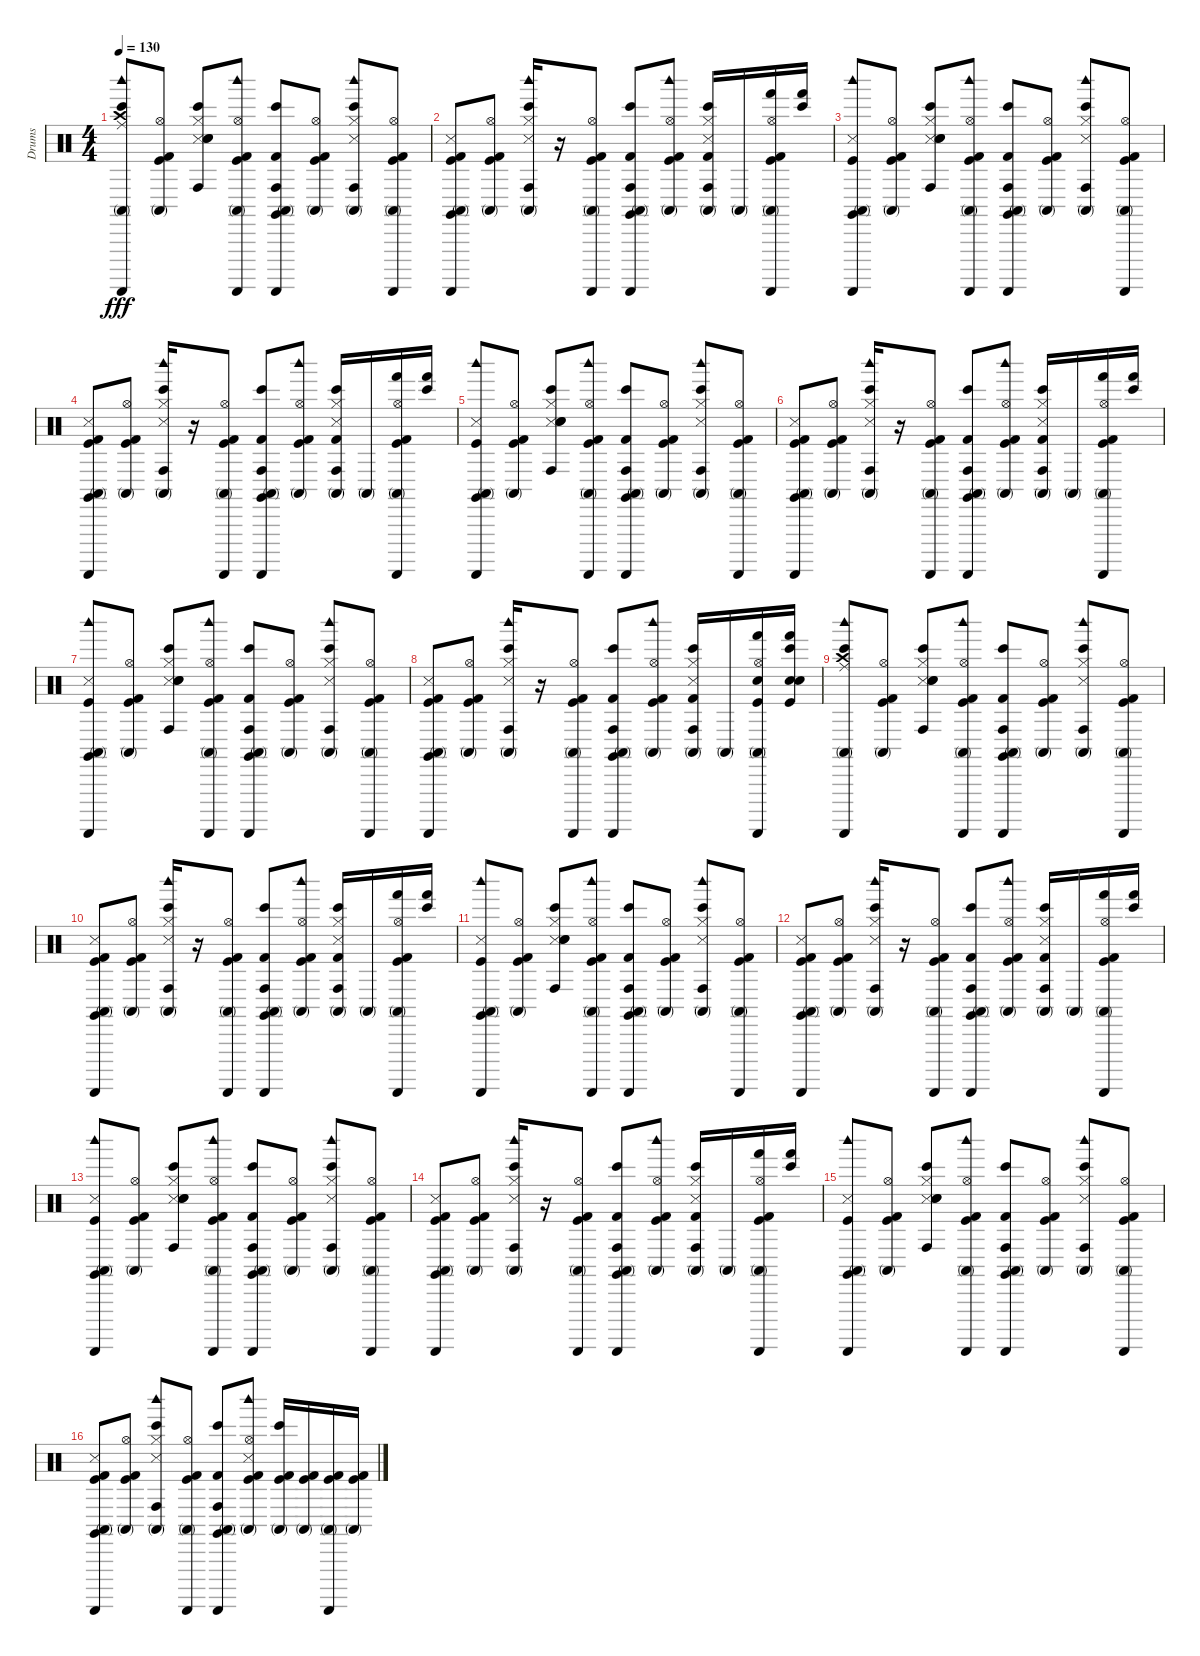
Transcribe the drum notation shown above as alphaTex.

\track ("Drums" "Drums") {instrument percussion}
\staff {score}
\articulation defaults
\ts (4 4)
\tempo 130
\clef neutral
\ks c
("Guiro (scrap-return)" "Woodblock high (hit)" "Bongo High (hit)" "Conga high (mute)" "Crash high (hit)" "Ride (middle)").8{dy fff} ("Conga high (mute)" "Hi-Hat (open)" "Kick (hit)" "Kick (hit) 2").8 ("Bongo High (hit)" "Conga high (hit)" "Snare (side stick) 3" "Hi-Hat (closed)" "Electric Snare (hit)" "Snare (hit) 2").8 ("Kick (hit) 2" "Kick (hit)" "Guiro (scrap-return)" "Woodblock high (hit)" "Conga high (mute)" "Hi-Hat (open)").8 ("Kick (hit) 2" "Guiro (scrap-return)" "Claves (hit)" "Bongo High (hit)" "Conga high (mute)" "Conga high (hit)").8 ("Conga high (mute)" "Hi-Hat (open)" "Kick (hit) 2" "Kick (hit)").8 ("Woodblock high (hit)" "Bongo High (hit)" "Conga high (mute)" "Conga high (hit)" "Snare (side stick) 3" "Hi-Hat (closed)").8 ("Kick (hit) 2" "Kick (hit)" "Guiro (scrap-return)" "Conga high (mute)" "Hi-Hat (open)").8 |
("Guiro (scrap-return)" "Claves (hit)" "Conga high (mute)" "Snare (side stick) 3" "Kick (hit)" "Kick (hit) 2").8 ("Conga high (mute)" "Hi-Hat (open)" "Kick (hit)" "Kick (hit) 2").8 ("Woodblock high (hit)" "Conga high (mute)" "Conga high (hit)" "Bongo High (hit)" "Snare (side stick) 3" "Hi-Hat (closed)").16 r.16 ("Guiro (scrap-return)" "Conga high (mute)" "Kick (hit) 2" "Kick (hit)" "Hi-Hat (open)").8 ("Guiro (scrap-return)" "Claves (hit)" "Conga high (mute)" "Conga high (hit)" "Kick (hit) 2" "Bongo High (hit)").8 ("Woodblock high (hit)" "Conga high (mute)" "Hi-Hat (open)" "Kick (hit) 2" "Kick (hit)").8 ("Conga high (mute)" "Conga high (hit)" "Bongo High (hit)" "Snare (side stick) 3" "Hi-Hat (closed)" "Kick (hit) 2").16 "Conga high (mute)".16 ("Guiro (scrap-return)" "Hand (hit)" "Conga high (mute)" "Kick (hit) 2" "Kick (hit)" "Hi-Hat (open)").16 ("Bongo High (hit)" "Hand (hit)").16 |
("Guiro (scrap-return)" "Woodblock high (hit)" "Claves (hit)" "Conga high (mute)" "Snare (side stick) 3" "Kick (hit)").8 ("Conga high (mute)" "Hi-Hat (open)" "Kick (hit)" "Kick (hit) 2").8 ("Conga high (hit)" "Bongo High (hit)" "Snare (side stick) 3" "Hi-Hat (closed)" "Electric Snare (hit)" "Snare (hit) 2").8 ("Guiro (scrap-return)" "Woodblock high (hit)" "Conga high (mute)" "Kick (hit) 2" "Kick (hit)" "Hi-Hat (open)").8 ("Guiro (scrap-return)" "Claves (hit)" "Conga high (mute)" "Conga high (hit)" "Kick (hit) 2" "Bongo High (hit)").8 ("Conga high (mute)" "Hi-Hat (open)" "Kick (hit) 2" "Kick (hit)").8 ("Woodblock high (hit)" "Conga high (mute)" "Conga high (hit)" "Bongo High (hit)" "Snare (side stick) 3" "Hi-Hat (closed)").8 ("Guiro (scrap-return)" "Conga high (mute)" "Kick (hit) 2" "Kick (hit)" "Hi-Hat (open)").8 |
("Guiro (scrap-return)" "Claves (hit)" "Conga high (mute)" "Snare (side stick) 3" "Kick (hit)" "Kick (hit) 2").8 ("Conga high (mute)" "Hi-Hat (open)" "Kick (hit)" "Kick (hit) 2").8 ("Woodblock high (hit)" "Conga high (mute)" "Conga high (hit)" "Bongo High (hit)" "Snare (side stick) 3" "Hi-Hat (closed)").16 r.16 ("Guiro (scrap-return)" "Conga high (mute)" "Kick (hit) 2" "Kick (hit)" "Hi-Hat (open)").8 ("Guiro (scrap-return)" "Claves (hit)" "Conga high (mute)" "Conga high (hit)" "Kick (hit) 2" "Bongo High (hit)").8 ("Woodblock high (hit)" "Conga high (mute)" "Hi-Hat (open)" "Kick (hit) 2" "Kick (hit)").8 ("Conga high (mute)" "Conga high (hit)" "Bongo High (hit)" "Snare (side stick) 3" "Hi-Hat (closed)" "Kick (hit) 2").16 "Conga high (mute)".16 ("Guiro (scrap-return)" "Hand (hit)" "Conga high (mute)" "Kick (hit) 2" "Kick (hit)" "Hi-Hat (open)").16 ("Bongo High (hit)" "Hand (hit)").16 |
("Conga high (mute)" "Claves (hit)" "Woodblock high (hit)" "Guiro (scrap-return)" "Snare (side stick) 3" "Kick (hit)").8 ("Conga high (mute)" "Hi-Hat (open)" "Kick (hit)" "Kick (hit) 2").8 ("Conga high (hit)" "Bongo High (hit)" "Snare (side stick) 3" "Hi-Hat (closed)" "Electric Snare (hit)" "Snare (hit) 2").8 ("Guiro (scrap-return)" "Woodblock high (hit)" "Conga high (mute)" "Kick (hit) 2" "Kick (hit)" "Hi-Hat (open)").8 ("Guiro (scrap-return)" "Claves (hit)" "Conga high (mute)" "Conga high (hit)" "Kick (hit) 2" "Bongo High (hit)").8 ("Conga high (mute)" "Hi-Hat (open)" "Kick (hit) 2" "Kick (hit)").8 ("Woodblock high (hit)" "Conga high (mute)" "Conga high (hit)" "Bongo High (hit)" "Snare (side stick) 3" "Hi-Hat (closed)").8 ("Guiro (scrap-return)" "Conga high (mute)" "Kick (hit) 2" "Kick (hit)" "Hi-Hat (open)").8 |
("Guiro (scrap-return)" "Claves (hit)" "Conga high (mute)" "Snare (side stick) 3" "Kick (hit)" "Kick (hit) 2").8 ("Conga high (mute)" "Hi-Hat (open)" "Kick (hit)" "Kick (hit) 2").8 ("Woodblock high (hit)" "Conga high (mute)" "Conga high (hit)" "Bongo High (hit)" "Snare (side stick) 3" "Hi-Hat (closed)").16 r.16 ("Guiro (scrap-return)" "Conga high (mute)" "Kick (hit) 2" "Kick (hit)" "Hi-Hat (open)").8 ("Guiro (scrap-return)" "Claves (hit)" "Conga high (mute)" "Conga high (hit)" "Kick (hit) 2" "Bongo High (hit)").8 ("Woodblock high (hit)" "Conga high (mute)" "Hi-Hat (open)" "Kick (hit) 2" "Kick (hit)").8 ("Conga high (mute)" "Conga high (hit)" "Bongo High (hit)" "Snare (side stick) 3" "Hi-Hat (closed)" "Kick (hit) 2").16 "Conga high (mute)".16 ("Guiro (scrap-return)" "Hand (hit)" "Conga high (mute)" "Kick (hit) 2" "Kick (hit)" "Hi-Hat (open)").16 ("Bongo High (hit)" "Hand (hit)").16 |
("Guiro (scrap-return)" "Woodblock high (hit)" "Claves (hit)" "Conga high (mute)" "Snare (side stick) 3" "Kick (hit)").8 ("Conga high (mute)" "Hi-Hat (open)" "Kick (hit)" "Kick (hit) 2").8 ("Conga high (hit)" "Bongo High (hit)" "Snare (side stick) 3" "Hi-Hat (closed)" "Electric Snare (hit)" "Snare (hit) 2").8 ("Guiro (scrap-return)" "Woodblock high (hit)" "Conga high (mute)" "Kick (hit) 2" "Kick (hit)" "Hi-Hat (open)").8 ("Guiro (scrap-return)" "Claves (hit)" "Conga high (mute)" "Conga high (hit)" "Kick (hit) 2" "Bongo High (hit)").8 ("Conga high (mute)" "Hi-Hat (open)" "Kick (hit) 2" "Kick (hit)").8 ("Woodblock high (hit)" "Conga high (mute)" "Conga high (hit)" "Bongo High (hit)" "Snare (side stick) 3" "Hi-Hat (closed)").8 ("Guiro (scrap-return)" "Conga high (mute)" "Kick (hit) 2" "Kick (hit)" "Hi-Hat (open)").8 |
("Guiro (scrap-return)" "Claves (hit)" "Conga high (mute)" "Snare (side stick) 3" "Kick (hit)" "Kick (hit) 2").8 ("Conga high (mute)" "Hi-Hat (open)" "Kick (hit)" "Kick (hit) 2").8 ("Woodblock high (hit)" "Conga high (mute)" "Conga high (hit)" "Bongo High (hit)" "Snare (side stick) 3" "Hi-Hat (closed)").16 r.16 ("Guiro (scrap-return)" "Conga high (mute)" "Kick (hit) 2" "Kick (hit)" "Hi-Hat (open)").8 ("Guiro (scrap-return)" "Claves (hit)" "Conga high (mute)" "Conga high (hit)" "Kick (hit) 2" "Bongo High (hit)").8 ("Woodblock high (hit)" "Conga high (mute)" "Hi-Hat (open)" "Kick (hit) 2" "Kick (hit)").8 ("Conga high (mute)" "Conga high (hit)" "Bongo High (hit)" "Snare (side stick) 3" "Hi-Hat (closed)" "Kick (hit) 2").16 "Conga high (mute)".16 ("Guiro (scrap-return)" "Hand (hit)" "Conga high (mute)" "Kick (hit)" "Hi-Hat (open)" "Electric Snare (hit)").16 ("Bongo High (hit)" "Hand (hit)" "Electric Snare (hit)" "Snare (hit) 2" "Kick (hit)").16 |
("Guiro (scrap-return)" "Woodblock high (hit)" "Bongo High (hit)" "Conga high (mute)" "Crash high (hit)" "Ride (middle)").8 ("Conga high (mute)" "Hi-Hat (open)" "Kick (hit)" "Kick (hit) 2").8 ("Bongo High (hit)" "Conga high (hit)" "Snare (side stick) 3" "Hi-Hat (closed)" "Electric Snare (hit)" "Snare (hit) 2").8 ("Kick (hit) 2" "Kick (hit)" "Guiro (scrap-return)" "Woodblock high (hit)" "Conga high (mute)" "Hi-Hat (open)").8 ("Kick (hit) 2" "Guiro (scrap-return)" "Claves (hit)" "Bongo High (hit)" "Conga high (mute)" "Conga high (hit)").8 ("Conga high (mute)" "Hi-Hat (open)" "Kick (hit) 2" "Kick (hit)").8 ("Woodblock high (hit)" "Bongo High (hit)" "Conga high (mute)" "Conga high (hit)" "Snare (side stick) 3" "Hi-Hat (closed)").8 ("Kick (hit) 2" "Kick (hit)" "Guiro (scrap-return)" "Conga high (mute)" "Hi-Hat (open)").8 |
("Guiro (scrap-return)" "Claves (hit)" "Conga high (mute)" "Snare (side stick) 3" "Kick (hit)" "Kick (hit) 2").8 ("Conga high (mute)" "Hi-Hat (open)" "Kick (hit)" "Kick (hit) 2").8 ("Woodblock high (hit)" "Conga high (mute)" "Conga high (hit)" "Bongo High (hit)" "Snare (side stick) 3" "Hi-Hat (closed)").16 r.16 ("Guiro (scrap-return)" "Conga high (mute)" "Kick (hit) 2" "Kick (hit)" "Hi-Hat (open)").8 ("Guiro (scrap-return)" "Claves (hit)" "Conga high (mute)" "Conga high (hit)" "Kick (hit) 2" "Bongo High (hit)").8 ("Woodblock high (hit)" "Conga high (mute)" "Hi-Hat (open)" "Kick (hit) 2" "Kick (hit)").8 ("Conga high (mute)" "Conga high (hit)" "Bongo High (hit)" "Snare (side stick) 3" "Hi-Hat (closed)" "Kick (hit) 2").16 "Conga high (mute)".16 ("Guiro (scrap-return)" "Hand (hit)" "Conga high (mute)" "Kick (hit) 2" "Kick (hit)" "Hi-Hat (open)").16 ("Bongo High (hit)" "Hand (hit)").16 |
("Guiro (scrap-return)" "Woodblock high (hit)" "Claves (hit)" "Conga high (mute)" "Snare (side stick) 3" "Kick (hit)").8 ("Conga high (mute)" "Hi-Hat (open)" "Kick (hit)" "Kick (hit) 2").8 ("Conga high (hit)" "Bongo High (hit)" "Snare (side stick) 3" "Hi-Hat (closed)" "Electric Snare (hit)" "Snare (hit) 2").8 ("Guiro (scrap-return)" "Woodblock high (hit)" "Conga high (mute)" "Kick (hit) 2" "Kick (hit)" "Hi-Hat (open)").8 ("Guiro (scrap-return)" "Claves (hit)" "Conga high (mute)" "Conga high (hit)" "Kick (hit) 2" "Bongo High (hit)").8 ("Conga high (mute)" "Hi-Hat (open)" "Kick (hit) 2" "Kick (hit)").8 ("Woodblock high (hit)" "Conga high (mute)" "Conga high (hit)" "Bongo High (hit)" "Snare (side stick) 3" "Hi-Hat (closed)").8 ("Guiro (scrap-return)" "Conga high (mute)" "Kick (hit) 2" "Kick (hit)" "Hi-Hat (open)").8 |
("Guiro (scrap-return)" "Claves (hit)" "Conga high (mute)" "Snare (side stick) 3" "Kick (hit)" "Kick (hit) 2").8 ("Conga high (mute)" "Hi-Hat (open)" "Kick (hit)" "Kick (hit) 2").8 ("Woodblock high (hit)" "Conga high (mute)" "Conga high (hit)" "Bongo High (hit)" "Snare (side stick) 3" "Hi-Hat (closed)").16 r.16 ("Guiro (scrap-return)" "Conga high (mute)" "Kick (hit) 2" "Kick (hit)" "Hi-Hat (open)").8 ("Guiro (scrap-return)" "Claves (hit)" "Conga high (mute)" "Conga high (hit)" "Kick (hit) 2" "Bongo High (hit)").8 ("Woodblock high (hit)" "Conga high (mute)" "Hi-Hat (open)" "Kick (hit) 2" "Kick (hit)").8 ("Conga high (mute)" "Conga high (hit)" "Bongo High (hit)" "Snare (side stick) 3" "Hi-Hat (closed)" "Kick (hit) 2").16 "Conga high (mute)".16 ("Guiro (scrap-return)" "Hand (hit)" "Conga high (mute)" "Kick (hit) 2" "Kick (hit)" "Hi-Hat (open)").16 ("Bongo High (hit)" "Hand (hit)").16 |
("Conga high (mute)" "Claves (hit)" "Woodblock high (hit)" "Guiro (scrap-return)" "Snare (side stick) 3" "Kick (hit)").8 ("Conga high (mute)" "Hi-Hat (open)" "Kick (hit)" "Kick (hit) 2").8 ("Conga high (hit)" "Bongo High (hit)" "Snare (side stick) 3" "Hi-Hat (closed)" "Electric Snare (hit)" "Snare (hit) 2").8 ("Guiro (scrap-return)" "Woodblock high (hit)" "Conga high (mute)" "Kick (hit) 2" "Kick (hit)" "Hi-Hat (open)").8 ("Guiro (scrap-return)" "Claves (hit)" "Conga high (mute)" "Conga high (hit)" "Kick (hit) 2" "Bongo High (hit)").8 ("Conga high (mute)" "Hi-Hat (open)" "Kick (hit) 2" "Kick (hit)").8 ("Woodblock high (hit)" "Conga high (mute)" "Conga high (hit)" "Bongo High (hit)" "Snare (side stick) 3" "Hi-Hat (closed)").8 ("Guiro (scrap-return)" "Conga high (mute)" "Kick (hit) 2" "Kick (hit)" "Hi-Hat (open)").8 |
("Guiro (scrap-return)" "Claves (hit)" "Conga high (mute)" "Snare (side stick) 3" "Kick (hit)" "Kick (hit) 2").8 ("Conga high (mute)" "Hi-Hat (open)" "Kick (hit)" "Kick (hit) 2").8 ("Woodblock high (hit)" "Conga high (mute)" "Conga high (hit)" "Bongo High (hit)" "Snare (side stick) 3" "Hi-Hat (closed)").16 r.16 ("Guiro (scrap-return)" "Conga high (mute)" "Kick (hit) 2" "Kick (hit)" "Hi-Hat (open)").8 ("Guiro (scrap-return)" "Claves (hit)" "Conga high (mute)" "Conga high (hit)" "Kick (hit) 2" "Bongo High (hit)").8 ("Woodblock high (hit)" "Conga high (mute)" "Hi-Hat (open)" "Kick (hit) 2" "Kick (hit)").8 ("Conga high (mute)" "Conga high (hit)" "Bongo High (hit)" "Snare (side stick) 3" "Hi-Hat (closed)" "Kick (hit) 2").16 "Conga high (mute)".16 ("Guiro (scrap-return)" "Hand (hit)" "Conga high (mute)" "Kick (hit) 2" "Kick (hit)" "Hi-Hat (open)").16 ("Bongo High (hit)" "Hand (hit)").16 |
("Guiro (scrap-return)" "Woodblock high (hit)" "Claves (hit)" "Conga high (mute)" "Snare (side stick) 3" "Kick (hit)").8 ("Conga high (mute)" "Hi-Hat (open)" "Kick (hit)" "Kick (hit) 2").8 ("Conga high (hit)" "Bongo High (hit)" "Snare (side stick) 3" "Hi-Hat (closed)" "Electric Snare (hit)" "Snare (hit) 2").8 ("Guiro (scrap-return)" "Woodblock high (hit)" "Conga high (mute)" "Kick (hit) 2" "Kick (hit)" "Hi-Hat (open)").8 ("Guiro (scrap-return)" "Claves (hit)" "Conga high (mute)" "Conga high (hit)" "Kick (hit) 2" "Bongo High (hit)").8 ("Conga high (mute)" "Hi-Hat (open)" "Kick (hit) 2" "Kick (hit)").8 ("Woodblock high (hit)" "Conga high (mute)" "Conga high (hit)" "Bongo High (hit)" "Snare (side stick) 3" "Hi-Hat (closed)").8 ("Guiro (scrap-return)" "Conga high (mute)" "Kick (hit) 2" "Kick (hit)" "Hi-Hat (open)").8 |
("Guiro (scrap-return)" "Claves (hit)" "Conga high (mute)" "Snare (side stick) 3" "Kick (hit)" "Kick (hit) 2").8 ("Conga high (mute)" "Hi-Hat (open)" "Kick (hit)" "Kick (hit) 2").8 ("Woodblock high (hit)" "Conga high (mute)" "Conga high (hit)" "Bongo High (hit)" "Snare (side stick) 3" "Hi-Hat (closed)").8 ("Guiro (scrap-return)" "Conga high (mute)" "Kick (hit) 2" "Kick (hit)" "Hi-Hat (open)").8 ("Guiro (scrap-return)" "Claves (hit)" "Conga high (mute)" "Conga high (hit)" "Kick (hit) 2" "Bongo High (hit)").8 ("Woodblock high (hit)" "Conga high (mute)" "Hi-Hat (open)" "Kick (hit) 2" "Kick (hit)" "Snare (side stick) 3").8 ("Bongo High (hit)" "Kick (hit) 2" "Kick (hit)" "Conga high (mute)").16 ("Kick (hit) 2" "Kick (hit)" "Conga high (mute)").16 ("Guiro (scrap-return)" "Kick (hit) 2" "Kick (hit)" "Conga high (mute)").16 ("Kick (hit) 2" "Kick (hit)" "Conga high (mute)").16
